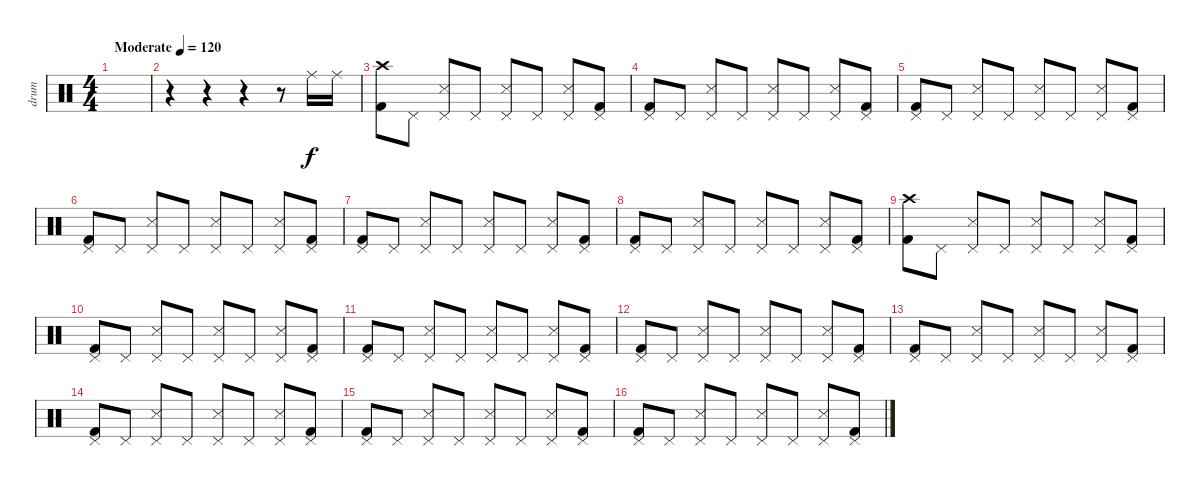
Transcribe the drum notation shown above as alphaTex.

\track ("drum" "drum") {instrument percussion}
\staff {score}
\articulation defaults
\ts (4 4)
\tempo (120 "Moderate")
\clef neutral
\ks c
|
r.4 r.4 r.4 r.8 "Ride (middle)".16 "Ride (middle)".16 |
("Crash high (hit)" "Kick (hit) 2").8 "Pedal Hi-Hat (hit)".8 ("Pedal Hi-Hat (hit)" "Snare (side stick) 3").8 "Pedal Hi-Hat (hit)".8 ("Pedal Hi-Hat (hit)" "Snare (side stick) 3").8 "Pedal Hi-Hat (hit)".8 ("Pedal Hi-Hat (hit)" "Snare (side stick) 3").8 ("Pedal Hi-Hat (hit)" "Kick (hit) 2").8 |
("Pedal Hi-Hat (hit)" "Kick (hit) 2").8 "Pedal Hi-Hat (hit)".8 ("Pedal Hi-Hat (hit)" "Snare (side stick) 3").8 "Pedal Hi-Hat (hit)".8 ("Pedal Hi-Hat (hit)" "Snare (side stick) 3").8 "Pedal Hi-Hat (hit)".8 ("Pedal Hi-Hat (hit)" "Snare (side stick) 3").8 ("Pedal Hi-Hat (hit)" "Kick (hit) 2").8 |
("Pedal Hi-Hat (hit)" "Kick (hit) 2").8 "Pedal Hi-Hat (hit)".8 ("Pedal Hi-Hat (hit)" "Snare (side stick) 3").8 "Pedal Hi-Hat (hit)".8 ("Pedal Hi-Hat (hit)" "Snare (side stick) 3").8 "Pedal Hi-Hat (hit)".8 ("Pedal Hi-Hat (hit)" "Snare (side stick) 3").8 ("Pedal Hi-Hat (hit)" "Kick (hit) 2").8 |
("Pedal Hi-Hat (hit)" "Kick (hit) 2").8 "Pedal Hi-Hat (hit)".8 ("Pedal Hi-Hat (hit)" "Snare (side stick) 3").8 "Pedal Hi-Hat (hit)".8 ("Pedal Hi-Hat (hit)" "Snare (side stick) 3").8 "Pedal Hi-Hat (hit)".8 ("Pedal Hi-Hat (hit)" "Snare (side stick) 3").8 ("Pedal Hi-Hat (hit)" "Kick (hit) 2").8 |
("Pedal Hi-Hat (hit)" "Kick (hit) 2").8 "Pedal Hi-Hat (hit)".8 ("Pedal Hi-Hat (hit)" "Snare (side stick) 3").8 "Pedal Hi-Hat (hit)".8 ("Pedal Hi-Hat (hit)" "Snare (side stick) 3").8 "Pedal Hi-Hat (hit)".8 ("Pedal Hi-Hat (hit)" "Snare (side stick) 3").8 ("Pedal Hi-Hat (hit)" "Kick (hit) 2").8 |
("Pedal Hi-Hat (hit)" "Kick (hit) 2").8 "Pedal Hi-Hat (hit)".8 ("Pedal Hi-Hat (hit)" "Snare (side stick) 3").8 "Pedal Hi-Hat (hit)".8 ("Pedal Hi-Hat (hit)" "Snare (side stick) 3").8 "Pedal Hi-Hat (hit)".8 ("Pedal Hi-Hat (hit)" "Snare (side stick) 3").8 ("Pedal Hi-Hat (hit)" "Kick (hit) 2").8 |
("Crash high (hit)" "Kick (hit) 2").8 "Pedal Hi-Hat (hit)".8 ("Pedal Hi-Hat (hit)" "Snare (side stick) 3").8 "Pedal Hi-Hat (hit)".8 ("Pedal Hi-Hat (hit)" "Snare (side stick) 3").8 "Pedal Hi-Hat (hit)".8 ("Pedal Hi-Hat (hit)" "Snare (side stick) 3").8 ("Pedal Hi-Hat (hit)" "Kick (hit) 2").8 |
("Pedal Hi-Hat (hit)" "Kick (hit) 2").8 "Pedal Hi-Hat (hit)".8 ("Pedal Hi-Hat (hit)" "Snare (side stick) 3").8 "Pedal Hi-Hat (hit)".8 ("Pedal Hi-Hat (hit)" "Snare (side stick) 3").8 "Pedal Hi-Hat (hit)".8 ("Pedal Hi-Hat (hit)" "Snare (side stick) 3").8 ("Pedal Hi-Hat (hit)" "Kick (hit) 2").8 |
("Pedal Hi-Hat (hit)" "Kick (hit) 2").8 "Pedal Hi-Hat (hit)".8 ("Pedal Hi-Hat (hit)" "Snare (side stick) 3").8 "Pedal Hi-Hat (hit)".8 ("Pedal Hi-Hat (hit)" "Snare (side stick) 3").8 "Pedal Hi-Hat (hit)".8 ("Pedal Hi-Hat (hit)" "Snare (side stick) 3").8 ("Pedal Hi-Hat (hit)" "Kick (hit) 2").8 |
("Pedal Hi-Hat (hit)" "Kick (hit) 2").8 "Pedal Hi-Hat (hit)".8 ("Pedal Hi-Hat (hit)" "Snare (side stick) 3").8 "Pedal Hi-Hat (hit)".8 ("Pedal Hi-Hat (hit)" "Snare (side stick) 3").8 "Pedal Hi-Hat (hit)".8 ("Pedal Hi-Hat (hit)" "Snare (side stick) 3").8 ("Pedal Hi-Hat (hit)" "Kick (hit) 2").8 |
("Pedal Hi-Hat (hit)" "Kick (hit) 2").8 "Pedal Hi-Hat (hit)".8 ("Pedal Hi-Hat (hit)" "Snare (side stick) 3").8 "Pedal Hi-Hat (hit)".8 ("Pedal Hi-Hat (hit)" "Snare (side stick) 3").8 "Pedal Hi-Hat (hit)".8 ("Pedal Hi-Hat (hit)" "Snare (side stick) 3").8 ("Pedal Hi-Hat (hit)" "Kick (hit) 2").8 |
("Pedal Hi-Hat (hit)" "Kick (hit) 2").8 "Pedal Hi-Hat (hit)".8 ("Pedal Hi-Hat (hit)" "Snare (side stick) 3").8 "Pedal Hi-Hat (hit)".8 ("Pedal Hi-Hat (hit)" "Snare (side stick) 3").8 "Pedal Hi-Hat (hit)".8 ("Pedal Hi-Hat (hit)" "Snare (side stick) 3").8 ("Pedal Hi-Hat (hit)" "Kick (hit) 2").8 |
("Pedal Hi-Hat (hit)" "Kick (hit) 2").8 "Pedal Hi-Hat (hit)".8 ("Pedal Hi-Hat (hit)" "Snare (side stick) 3").8 "Pedal Hi-Hat (hit)".8 ("Pedal Hi-Hat (hit)" "Snare (side stick) 3").8 "Pedal Hi-Hat (hit)".8 ("Pedal Hi-Hat (hit)" "Snare (side stick) 3").8 ("Pedal Hi-Hat (hit)" "Kick (hit) 2").8 |
("Pedal Hi-Hat (hit)" "Kick (hit) 2").8 "Pedal Hi-Hat (hit)".8 ("Pedal Hi-Hat (hit)" "Snare (side stick) 3").8 "Pedal Hi-Hat (hit)".8 ("Pedal Hi-Hat (hit)" "Snare (side stick) 3").8 "Pedal Hi-Hat (hit)".8 ("Pedal Hi-Hat (hit)" "Snare (side stick) 3").8 ("Pedal Hi-Hat (hit)" "Kick (hit) 2").8
